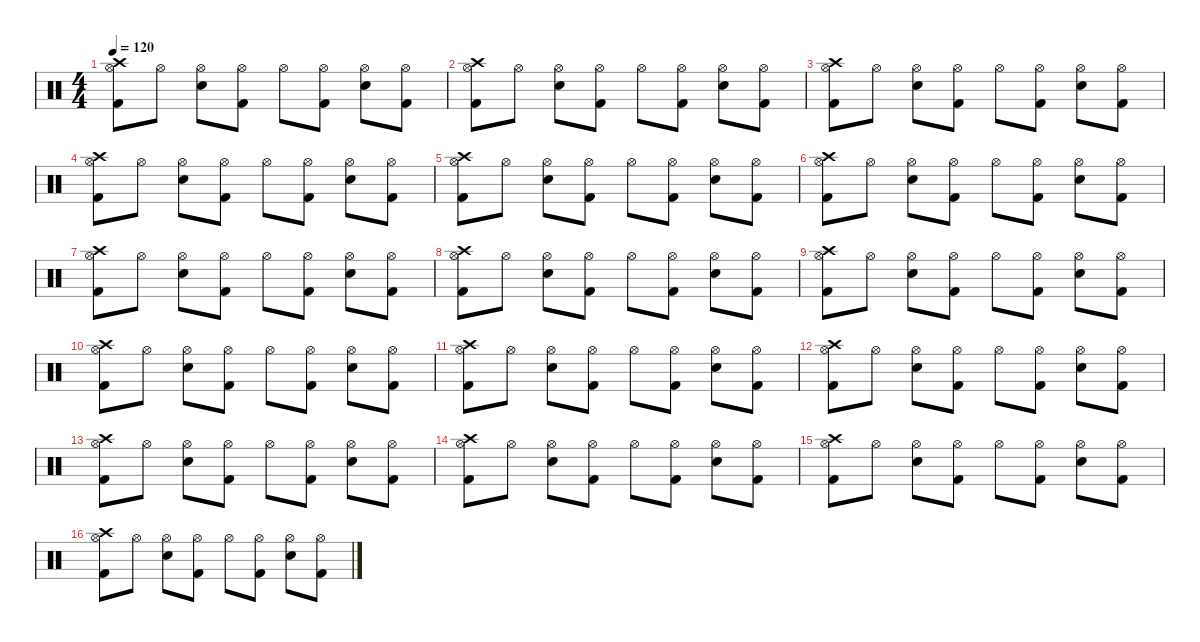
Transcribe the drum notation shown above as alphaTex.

\defaultSystemsLayout 4
\hideDynamics
\bracketExtendMode nobrackets
\singleTrackTrackNamePolicy hidden
\multiTrackTrackNamePolicy hidden
\otherSystemsTrackNameOrientation horizontal
\track ("Percussion" "drm.") {instrument percussion}
\staff {score}
\articulation defaults
\ts (4 4)
\tempo 120
\clef neutral
\ks c
("Kick (hit) 2" "Hi-Hat (open)" "Crash high (hit)").8{dy f beam Down} "Hi-Hat (open)".8{beam Down} ("Snare (hit) 2" "Hi-Hat (open)").8{beam Down} ("Kick (hit) 2" "Hi-Hat (open)").8{beam Down} "Hi-Hat (open)".8{beam Down} ("Kick (hit) 2" "Hi-Hat (open)").8{beam Down} ("Snare (hit) 2" "Hi-Hat (open)").8{beam Down} ("Kick (hit) 2" "Hi-Hat (open)").8{beam Down} |
("Kick (hit) 2" "Hi-Hat (open)" "Crash high (hit)").8{beam Down} "Hi-Hat (open)".8{beam Down} ("Snare (hit) 2" "Hi-Hat (open)").8{beam Down} ("Kick (hit) 2" "Hi-Hat (open)").8{beam Down} "Hi-Hat (open)".8{beam Down} ("Kick (hit) 2" "Hi-Hat (open)").8{beam Down} ("Snare (hit) 2" "Hi-Hat (open)").8{beam Down} ("Kick (hit) 2" "Hi-Hat (open)").8{beam Down} |
("Kick (hit) 2" "Hi-Hat (open)" "Crash high (hit)").8{beam Down} "Hi-Hat (open)".8{beam Down} ("Snare (hit) 2" "Hi-Hat (open)").8{beam Down} ("Kick (hit) 2" "Hi-Hat (open)").8{beam Down} "Hi-Hat (open)".8{beam Down} ("Kick (hit) 2" "Hi-Hat (open)").8{beam Down} ("Snare (hit) 2" "Hi-Hat (open)").8{beam Down} ("Kick (hit) 2" "Hi-Hat (open)").8{beam Down} |
("Kick (hit) 2" "Hi-Hat (open)" "Crash high (hit)").8{beam Down} "Hi-Hat (open)".8{beam Down} ("Snare (hit) 2" "Hi-Hat (open)").8{beam Down} ("Kick (hit) 2" "Hi-Hat (open)").8{beam Down} "Hi-Hat (open)".8{beam Down} ("Kick (hit) 2" "Hi-Hat (open)").8{beam Down} ("Snare (hit) 2" "Hi-Hat (open)").8{beam Down} ("Kick (hit) 2" "Hi-Hat (open)").8{beam Down} |
("Kick (hit) 2" "Hi-Hat (open)" "Crash high (hit)").8{beam Down} "Hi-Hat (open)".8{beam Down} ("Snare (hit) 2" "Hi-Hat (open)").8{beam Down} ("Kick (hit) 2" "Hi-Hat (open)").8{beam Down} "Hi-Hat (open)".8{beam Down} ("Kick (hit) 2" "Hi-Hat (open)").8{beam Down} ("Snare (hit) 2" "Hi-Hat (open)").8{beam Down} ("Kick (hit) 2" "Hi-Hat (open)").8{beam Down} |
("Kick (hit) 2" "Hi-Hat (open)" "Crash high (hit)").8{beam Down} "Hi-Hat (open)".8{beam Down} ("Snare (hit) 2" "Hi-Hat (open)").8{beam Down} ("Kick (hit) 2" "Hi-Hat (open)").8{beam Down} "Hi-Hat (open)".8{beam Down} ("Kick (hit) 2" "Hi-Hat (open)").8{beam Down} ("Snare (hit) 2" "Hi-Hat (open)").8{beam Down} ("Kick (hit) 2" "Hi-Hat (open)").8{beam Down} |
("Kick (hit) 2" "Hi-Hat (open)" "Crash high (hit)").8{beam Down} "Hi-Hat (open)".8{beam Down} ("Snare (hit) 2" "Hi-Hat (open)").8{beam Down} ("Kick (hit) 2" "Hi-Hat (open)").8{beam Down} "Hi-Hat (open)".8{beam Down} ("Kick (hit) 2" "Hi-Hat (open)").8{beam Down} ("Snare (hit) 2" "Hi-Hat (open)").8{beam Down} ("Kick (hit) 2" "Hi-Hat (open)").8{beam Down} |
("Kick (hit) 2" "Hi-Hat (open)" "Crash high (hit)").8{beam Down} "Hi-Hat (open)".8{beam Down} ("Snare (hit) 2" "Hi-Hat (open)").8{beam Down} ("Kick (hit) 2" "Hi-Hat (open)").8{beam Down} "Hi-Hat (open)".8{beam Down} ("Kick (hit) 2" "Hi-Hat (open)").8{beam Down} ("Snare (hit) 2" "Hi-Hat (open)").8{beam Down} ("Kick (hit) 2" "Hi-Hat (open)").8{beam Down} |
("Kick (hit) 2" "Hi-Hat (open)" "Crash high (hit)").8{beam Down} "Hi-Hat (open)".8{beam Down} ("Snare (hit) 2" "Hi-Hat (open)").8{beam Down} ("Kick (hit) 2" "Hi-Hat (open)").8{beam Down} "Hi-Hat (open)".8{beam Down} ("Kick (hit) 2" "Hi-Hat (open)").8{beam Down} ("Snare (hit) 2" "Hi-Hat (open)").8{beam Down} ("Kick (hit) 2" "Hi-Hat (open)").8{beam Down} |
("Kick (hit) 2" "Hi-Hat (open)" "Crash high (hit)").8{beam Down} "Hi-Hat (open)".8{beam Down} ("Snare (hit) 2" "Hi-Hat (open)").8{beam Down} ("Kick (hit) 2" "Hi-Hat (open)").8{beam Down} "Hi-Hat (open)".8{beam Down} ("Kick (hit) 2" "Hi-Hat (open)").8{beam Down} ("Snare (hit) 2" "Hi-Hat (open)").8{beam Down} ("Kick (hit) 2" "Hi-Hat (open)").8{beam Down} |
("Kick (hit) 2" "Hi-Hat (open)" "Crash high (hit)").8{beam Down} "Hi-Hat (open)".8{beam Down} ("Snare (hit) 2" "Hi-Hat (open)").8{beam Down} ("Kick (hit) 2" "Hi-Hat (open)").8{beam Down} "Hi-Hat (open)".8{beam Down} ("Kick (hit) 2" "Hi-Hat (open)").8{beam Down} ("Snare (hit) 2" "Hi-Hat (open)").8{beam Down} ("Kick (hit) 2" "Hi-Hat (open)").8{beam Down} |
("Kick (hit) 2" "Hi-Hat (open)" "Crash high (hit)").8{beam Down} "Hi-Hat (open)".8{beam Down} ("Snare (hit) 2" "Hi-Hat (open)").8{beam Down} ("Kick (hit) 2" "Hi-Hat (open)").8{beam Down} "Hi-Hat (open)".8{beam Down} ("Kick (hit) 2" "Hi-Hat (open)").8{beam Down} ("Snare (hit) 2" "Hi-Hat (open)").8{beam Down} ("Kick (hit) 2" "Hi-Hat (open)").8{beam Down} |
("Kick (hit) 2" "Hi-Hat (open)" "Crash high (hit)").8{beam Down} "Hi-Hat (open)".8{beam Down} ("Snare (hit) 2" "Hi-Hat (open)").8{beam Down} ("Kick (hit) 2" "Hi-Hat (open)").8{beam Down} "Hi-Hat (open)".8{beam Down} ("Kick (hit) 2" "Hi-Hat (open)").8{beam Down} ("Snare (hit) 2" "Hi-Hat (open)").8{beam Down} ("Kick (hit) 2" "Hi-Hat (open)").8{beam Down} |
("Kick (hit) 2" "Hi-Hat (open)" "Crash high (hit)").8{beam Down} "Hi-Hat (open)".8{beam Down} ("Snare (hit) 2" "Hi-Hat (open)").8{beam Down} ("Kick (hit) 2" "Hi-Hat (open)").8{beam Down} "Hi-Hat (open)".8{beam Down} ("Kick (hit) 2" "Hi-Hat (open)").8{beam Down} ("Snare (hit) 2" "Hi-Hat (open)").8{beam Down} ("Kick (hit) 2" "Hi-Hat (open)").8{beam Down} |
("Kick (hit) 2" "Hi-Hat (open)" "Crash high (hit)").8{beam Down} "Hi-Hat (open)".8{beam Down} ("Snare (hit) 2" "Hi-Hat (open)").8{beam Down} ("Kick (hit) 2" "Hi-Hat (open)").8{beam Down} "Hi-Hat (open)".8{beam Down} ("Kick (hit) 2" "Hi-Hat (open)").8{beam Down} ("Snare (hit) 2" "Hi-Hat (open)").8{beam Down} ("Kick (hit) 2" "Hi-Hat (open)").8{beam Down} |
("Kick (hit) 2" "Hi-Hat (open)" "Crash high (hit)").8{beam Down} "Hi-Hat (open)".8{beam Down} ("Snare (hit) 2" "Hi-Hat (open)").8{beam Down} ("Kick (hit) 2" "Hi-Hat (open)").8{beam Down} "Hi-Hat (open)".8{beam Down} ("Kick (hit) 2" "Hi-Hat (open)").8{beam Down} ("Snare (hit) 2" "Hi-Hat (open)").8{beam Down} ("Kick (hit) 2" "Hi-Hat (open)").8{beam Down}
